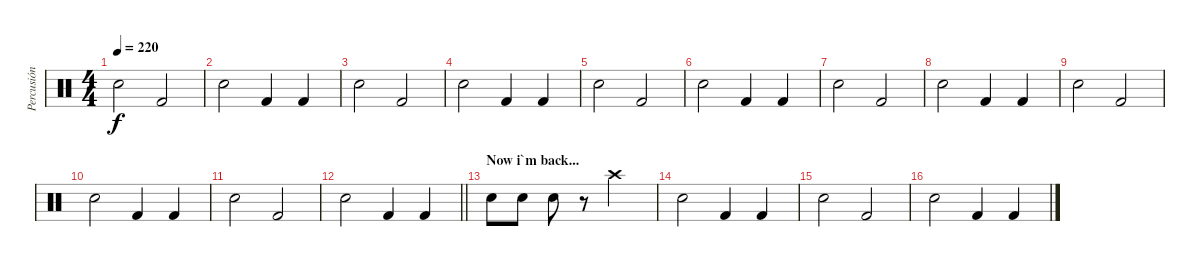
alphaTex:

\track ("Percusión" "Percusión") {instrument percussion}
\staff {score}
\articulation defaults
\ts (4 4)
\tempo 220
\clef neutral
\ks c "Electric Snare (hit)".2{dy f} "Kick (hit) 2".2
|
"Electric Snare (hit)".2 "Kick (hit) 2".4 "Kick (hit) 2".4 |
"Electric Snare (hit)".2 "Kick (hit) 2".2 |
"Electric Snare (hit)".2 "Kick (hit) 2".4 "Kick (hit) 2".4 |
"Electric Snare (hit)".2 "Kick (hit) 2".2 |
"Electric Snare (hit)".2 "Kick (hit) 2".4 "Kick (hit) 2".4 |
"Electric Snare (hit)".2 "Kick (hit) 2".2 |
"Electric Snare (hit)".2 "Kick (hit) 2".4 "Kick (hit) 2".4 |
"Electric Snare (hit)".2 "Kick (hit) 2".2 |
"Electric Snare (hit)".2 "Kick (hit) 2".4 "Kick (hit) 2".4 |
"Electric Snare (hit)".2 "Kick (hit) 2".2 |
\barLineRight lightlight "Electric Snare (hit)".2 "Kick (hit) 2".4 "Kick (hit) 2".4
|
\section ("" "Now i`m back...")
"Electric Snare (hit)".8 "Electric Snare (hit)".8 "Electric Snare (hit)".8 r.8 "Crash high (hit)".2 |
"Electric Snare (hit)".2 "Kick (hit) 2".4 "Kick (hit) 2".4 |
"Electric Snare (hit)".2 "Kick (hit) 2".2 |
"Electric Snare (hit)".2 "Kick (hit) 2".4 "Kick (hit) 2".4
